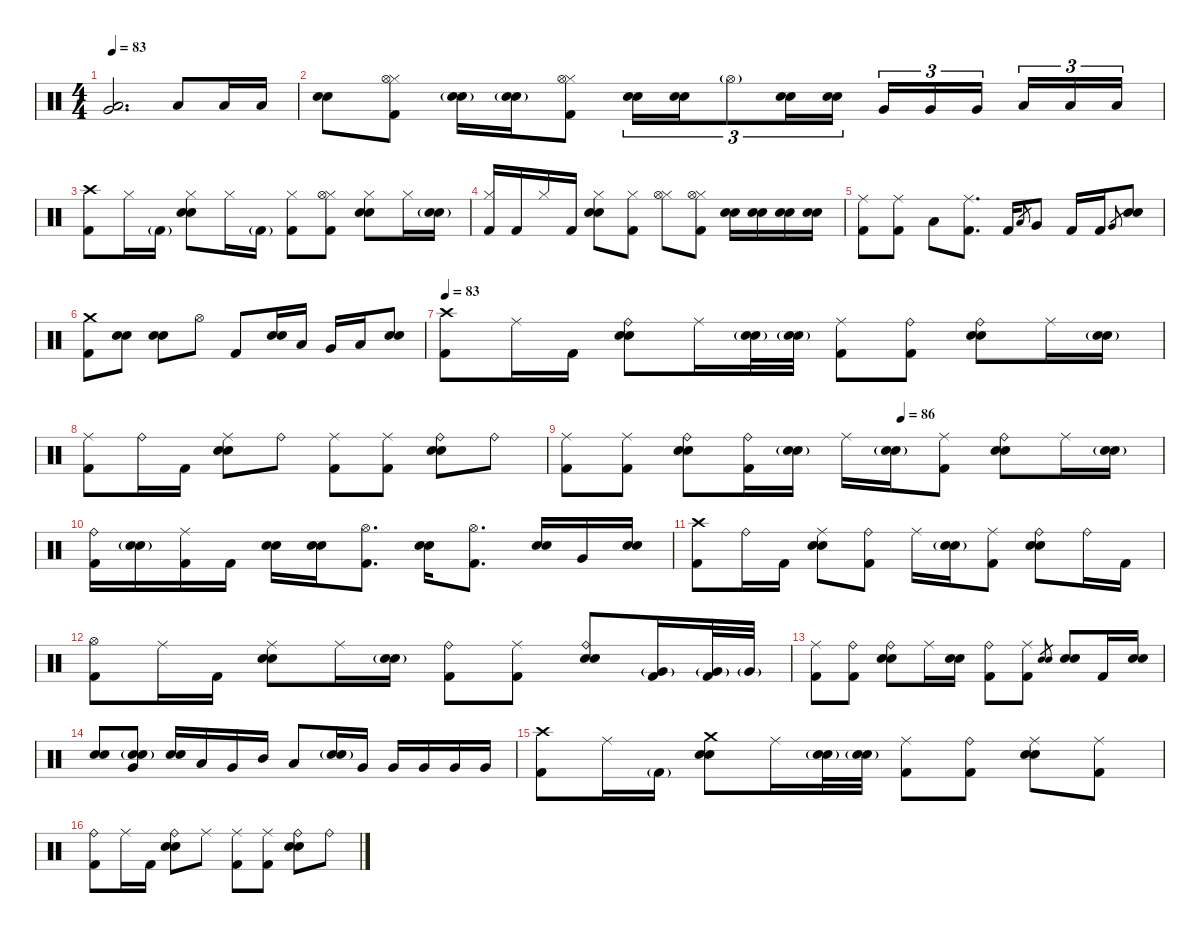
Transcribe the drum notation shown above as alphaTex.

\defaultSystemsLayout 4
\hideDynamics
\bracketExtendMode nobrackets
\singleTrackTrackNamePolicy hidden
\multiTrackTrackNamePolicy hidden
\firstSystemTrackNameMode fullname
\firstSystemTrackNameOrientation horizontal
\otherSystemsTrackNameOrientation horizontal
\track ("Batterie" "drm.") {instrument percussion}
\staff {score}
\articulation defaults
\ts (4 4)
\tempo 83
\clef neutral
\ks c
("Very Low Tom (hit)" "Low Floor Tom (hit)").2{d dy f beam Up} "Low Floor Tom (hit)".8{dy ff beam Up} "Low Floor Tom (hit)".16{dy f beam Up} "Low Floor Tom (hit)".16{beam Up} |
("Snare (hit) 2" "Snare (hit) 2").8{dy mf beam Down} ("Hi-Hat (closed)" "Hi-Hat (open)" "Kick (hit) 2").8{dy f beam Down} ("Snare (hit) 2"{g} "Snare (hit) 2"{g}).16{beam Down} ("Snare (hit) 2"{g} "Snare (hit) 2"{g}).16{beam Down} ("Hi-Hat (closed)" "Hi-Hat (open)" "Kick (hit) 2").8{beam Down} ("Snare (hit) 2" "Snare (hit) 2").16{tu (3 2) dy mf beam Down} ("Snare (hit) 2" "Snare (hit) 2").16{tu (3 2) beam Down} "Hi-Hat (open)"{g}.8{tu (3 2) dy f beam Down} ("Snare (hit) 2" "Snare (hit) 2").16{tu (3 2) dy mf beam Down} ("Snare (hit) 2" "Snare (hit) 2").16{tu (3 2) beam Down} "Very Low Tom (hit)".16{tu (3 2) dy f beam Up} "Very Low Tom (hit)".16{tu (3 2) beam Up} "Very Low Tom (hit)".16{tu (3 2) beam Up} "Low Floor Tom (hit)".16{tu (3 2) beam Up} "Low Floor Tom (hit)".16{tu (3 2) beam Up} "Low Floor Tom (hit)".16{tu (3 2) beam Up} |
("Crash high (hit)" "Kick (hit) 2").8{dy mf beam Down} "Hi-Hat (closed)".16{dy f beam Down} "Kick (hit) 2"{g}.16{dy mf beam Down} ("Hi-Hat (closed)" "Snare (hit) 2" "Snare (hit) 2").8{dy f beam Down} "Hi-Hat (closed)".16{beam Down} "Kick (hit) 2"{g}.16{dy mf beam Down} ("Hi-Hat (closed)" "Kick (hit) 2").8{dy f beam Down} ("Hi-Hat (closed)" "Hi-Hat (open)" "Kick (hit) 2").8{beam Down} ("Hi-Hat (closed)" "Snare (hit) 2" "Snare (hit) 2").8{beam Down} "Hi-Hat (closed)".16{beam Down} ("Snare (hit) 2"{g} "Snare (hit) 2"{g}).16{beam Down} |
("Hi-Hat (closed)" "Kick (hit) 2").16{beam Up} "Kick (hit) 2".16{dy mf beam Up} "Hi-Hat (closed)".16{dy f beam Up} "Kick (hit) 2".16{dy mf beam Up} ("Hi-Hat (closed)" "Snare (hit) 2" "Snare (hit) 2").8{dy f beam Down} ("Hi-Hat (closed)" "Kick (hit) 2").8{beam Down} ("Hi-Hat (closed)" "Hi-Hat (open)").8{beam Down} ("Hi-Hat (closed)" "Hi-Hat (open)" "Kick (hit) 2").8{beam Down} ("Snare (hit) 2" "Snare (hit) 2").16{dy mp beam Down} ("Snare (hit) 2" "Snare (hit) 2").16{beam Down} ("Snare (hit) 2" "Snare (hit) 2").16{beam Down} ("Snare (hit) 2" "Snare (hit) 2").16{beam Down} |
("Ride (middle)" "Kick (hit) 2").8{dy mf beam Down} ("Ride (middle)" "Kick (hit) 2").8{beam Down} "Low Tom (hit)".8{dy f beam Down} ("Ride (middle)" "Kick (hit) 2").8{d dy mf beam Down} "Kick (hit) 2".16{dy f beam Up} "Low Tom (hit)".8{gr dy mf beam Up} "Very Low Tom (hit)".8{dy f beam Up} "Kick (hit) 2".16{beam Up} "Kick (hit) 2".16{beam Up} "Very Low Tom (hit)".8{gr dy mp beam Up} ("Snare (hit) 2" "Snare (hit) 2").8{dy mf beam Up} |
("Crash medium (hit)" "Kick (hit) 2").8{beam Down} ("Snare (hit) 2" "Snare (hit) 2").8{beam Down} ("Snare (hit) 2" "Snare (hit) 2").8{beam Down} "Hi-Hat (open)".8{beam Down} "Kick (hit) 2".8{dy f beam Up} ("Snare (hit) 2" "Snare (hit) 2").16{dy mf beam Up} "Low Tom (hit)".16{dy f beam Up} "Very Low Tom (hit)".16{beam Up} "Low Floor Tom (hit)".16{beam Up} ("Snare (hit) 2" "Snare (hit) 2").8{dy mf beam Up} |
\tempo 83
("Crash high (hit)" "Kick (hit) 2").8{beam Down} "Ride (middle)".16{beam Down} "Kick (hit) 2".16{beam Down} ("Ride (bell)" "Snare (hit) 2" "Snare (hit) 2").8{beam Down} "Ride (middle)".16{beam Down} ("Snare (hit) 2"{g} "Snare (hit) 2"{g}).32{dy mp beam Down} ("Snare (hit) 2"{g} "Snare (hit) 2"{g}).32{dy mf beam Down} ("Ride (middle)" "Kick (hit) 2").8{beam Down} ("Ride (bell)" "Kick (hit) 2").8{beam Down} ("Ride (bell)" "Snare (hit) 2" "Snare (hit) 2").8{beam Down} "Ride (middle)".16{beam Down} ("Snare (hit) 2"{g} "Snare (hit) 2"{g}).16{dy f beam Down} |
("Ride (middle)" "Kick (hit) 2").8{dy mf beam Down} "Ride (bell)".16{beam Down} "Kick (hit) 2".16{beam Down} ("Ride (middle)" "Snare (hit) 2" "Snare (hit) 2").8{beam Down} "Ride (bell)".8{beam Down} ("Ride (middle)" "Kick (hit) 2").8{beam Down} ("Ride (middle)" "Kick (hit) 2").8{beam Down} ("Ride (bell)" "Snare (hit) 2" "Snare (hit) 2").8{beam Down} "Ride (bell)".8{beam Down} |
\tempo (86 0.5625)
("Ride (middle)" "Kick (hit) 2").8{beam Down} ("Ride (middle)" "Kick (hit) 2").8{beam Down} ("Ride (bell)" "Snare (hit) 2" "Snare (hit) 2").8{beam Down} ("Ride (bell)" "Kick (hit) 2").16{beam Down} ("Snare (hit) 2"{g} "Snare (hit) 2"{g}).16{beam Down} "Ride (middle)".16{beam Down} ("Snare (hit) 2"{g} "Snare (hit) 2"{g}).16{dy f beam Down} ("Ride (middle)" "Kick (hit) 2").8{dy mf beam Down} ("Ride (bell)" "Snare (hit) 2" "Snare (hit) 2").8{beam Down} "Ride (middle)".16{beam Down} ("Snare (hit) 2"{g} "Snare (hit) 2"{g}).16{dy f beam Down} |
("Ride (bell)" "Kick (hit) 2").16{dy mf beam Down} ("Snare (hit) 2"{g} "Snare (hit) 2"{g}).16{beam Down} ("Ride (middle)" "Kick (hit) 2").16{beam Down} "Kick (hit) 2".16{beam Down} ("Snare (hit) 2" "Snare (hit) 2").16{beam Down} ("Snare (hit) 2" "Snare (hit) 2").16{beam Down} ("Hi-Hat (open)" "Kick (hit) 2").8{d beam Down} ("Snare (hit) 2" "Snare (hit) 2").16{beam Down} ("Hi-Hat (open)" "Kick (hit) 2").8{d beam Down} ("Snare (hit) 2" "Snare (hit) 2").16{beam Up} "Very Low Tom (hit)".16{dy ff beam Up} ("Snare (hit) 2" "Snare (hit) 2").16{dy mf beam Up} |
("Crash high (hit)" "Kick (hit) 2").8{dy mp beam Down} "Ride (bell)".16{dy mf beam Down} "Kick (hit) 2".16{beam Down} ("Ride (middle)" "Snare (hit) 2" "Snare (hit) 2").8{beam Down} ("Ride (bell)" "Kick (hit) 2").8{beam Down} "Ride (middle)".16{beam Down} ("Snare (hit) 2"{g} "Snare (hit) 2"{g}).16{dy mp beam Down} ("Ride (middle)" "Kick (hit) 2").8{dy mf beam Down} ("Ride (bell)" "Snare (hit) 2" "Snare (hit) 2").8{beam Down} "Ride (bell)".16{beam Down} "Kick (hit) 2".16{beam Down} |
("Hi-Hat (open)" "Kick (hit) 2").8{beam Down} "Ride (middle)".16{beam Down} "Kick (hit) 2".16{beam Down} ("Ride (middle)" "Snare (hit) 2" "Snare (hit) 2").8{beam Down} "Ride (middle)".16{beam Down} ("Snare (hit) 2"{g} "Snare (hit) 2"{g}).16{dy mp beam Down} ("Ride (bell)" "Kick (hit) 2").8{dy mf beam Down} ("Ride (middle)" "Kick (hit) 2").8{beam Down} ("Ride (bell)" "Snare (hit) 2" "Snare (hit) 2").8{beam Up} ("Very Low Tom (hit)"{g} "Kick (hit) 2").16{beam Up} ("Very Low Tom (hit)"{g} "Kick (hit) 2").32{beam Up} "Very Low Tom (hit)"{g}.32{dy f beam Up} |
("Ride (middle)" "Kick (hit) 2").8{dy mf beam Down} ("Ride (bell)" "Kick (hit) 2").8{beam Down} ("Ride (bell)" "Snare (hit) 2" "Snare (hit) 2").8{beam Down} "Ride (middle)".16{beam Down} ("Snare (hit) 2" "Snare (hit) 2").16{beam Down} ("Ride (bell)" "Kick (hit) 2").8{beam Down} ("Ride (middle)" "Kick (hit) 2").8{beam Down} ("Electric Snare (hit)" "Snare (hit) 2").8{gr dy p beam Up} ("Snare (hit) 2" "Snare (hit) 2").8{dy mf beam Up} "Kick (hit) 2".16{beam Up} ("Snare (hit) 2" "Snare (hit) 2").16{beam Up} |
("Snare (hit) 2" "Snare (hit) 2").8{dy f beam Up} ("Snare (hit) 2"{g} "Snare (hit) 2"{g} "Very Low Tom (hit)").8{beam Up} ("Snare (hit) 2" "Snare (hit) 2").16{beam Up} "Low Tom (hit)".16{beam Up} "Very Low Tom (hit)".16{beam Up} "Mid Tom (hit)".16{beam Up} "Low Tom (hit)".8{beam Up} ("Snare (hit) 2"{g} "Snare (hit) 2"{g}).16{beam Up} "Very Low Tom (hit)".16{beam Up} "Very Low Tom (hit)".16{beam Up} "Very Low Tom (hit)".16{beam Up} "Very Low Tom (hit)".16{beam Up} "Very Low Tom (hit)".16{beam Up} |
("Crash high (hit)" "Kick (hit) 2").8{dy mf beam Down} "Ride (middle)".16{beam Down} "Kick (hit) 2"{g}.16{dy f beam Down} ("Crash medium (hit)" "Snare (hit) 2" "Snare (hit) 2").8{dy mf beam Down} "Ride (middle)".16{beam Down} ("Snare (hit) 2"{g} "Snare (hit) 2"{g}).32{dy mp beam Down} ("Snare (hit) 2"{g} "Snare (hit) 2"{g}).32{beam Down} ("Ride (middle)" "Kick (hit) 2").8{dy mf beam Down} ("Ride (bell)" "Kick (hit) 2").8{beam Down} ("Ride (middle)" "Snare (hit) 2" "Snare (hit) 2").8{beam Down} ("Ride (middle)" "Kick (hit) 2").8{beam Down} |
("Ride (bell)" "Kick (hit) 2").8{beam Down} "Ride (middle)".16{beam Down} "Kick (hit) 2".16{beam Down} ("Ride (bell)" "Snare (hit) 2" "Snare (hit) 2").8{beam Down} "Ride (middle)".8{beam Down} ("Ride (middle)" "Kick (hit) 2").8{beam Down} ("Ride (middle)" "Kick (hit) 2").8{beam Down} ("Ride (bell)" "Snare (hit) 2" "Snare (hit) 2").8{beam Down} "Ride (bell)".8{beam Down}
